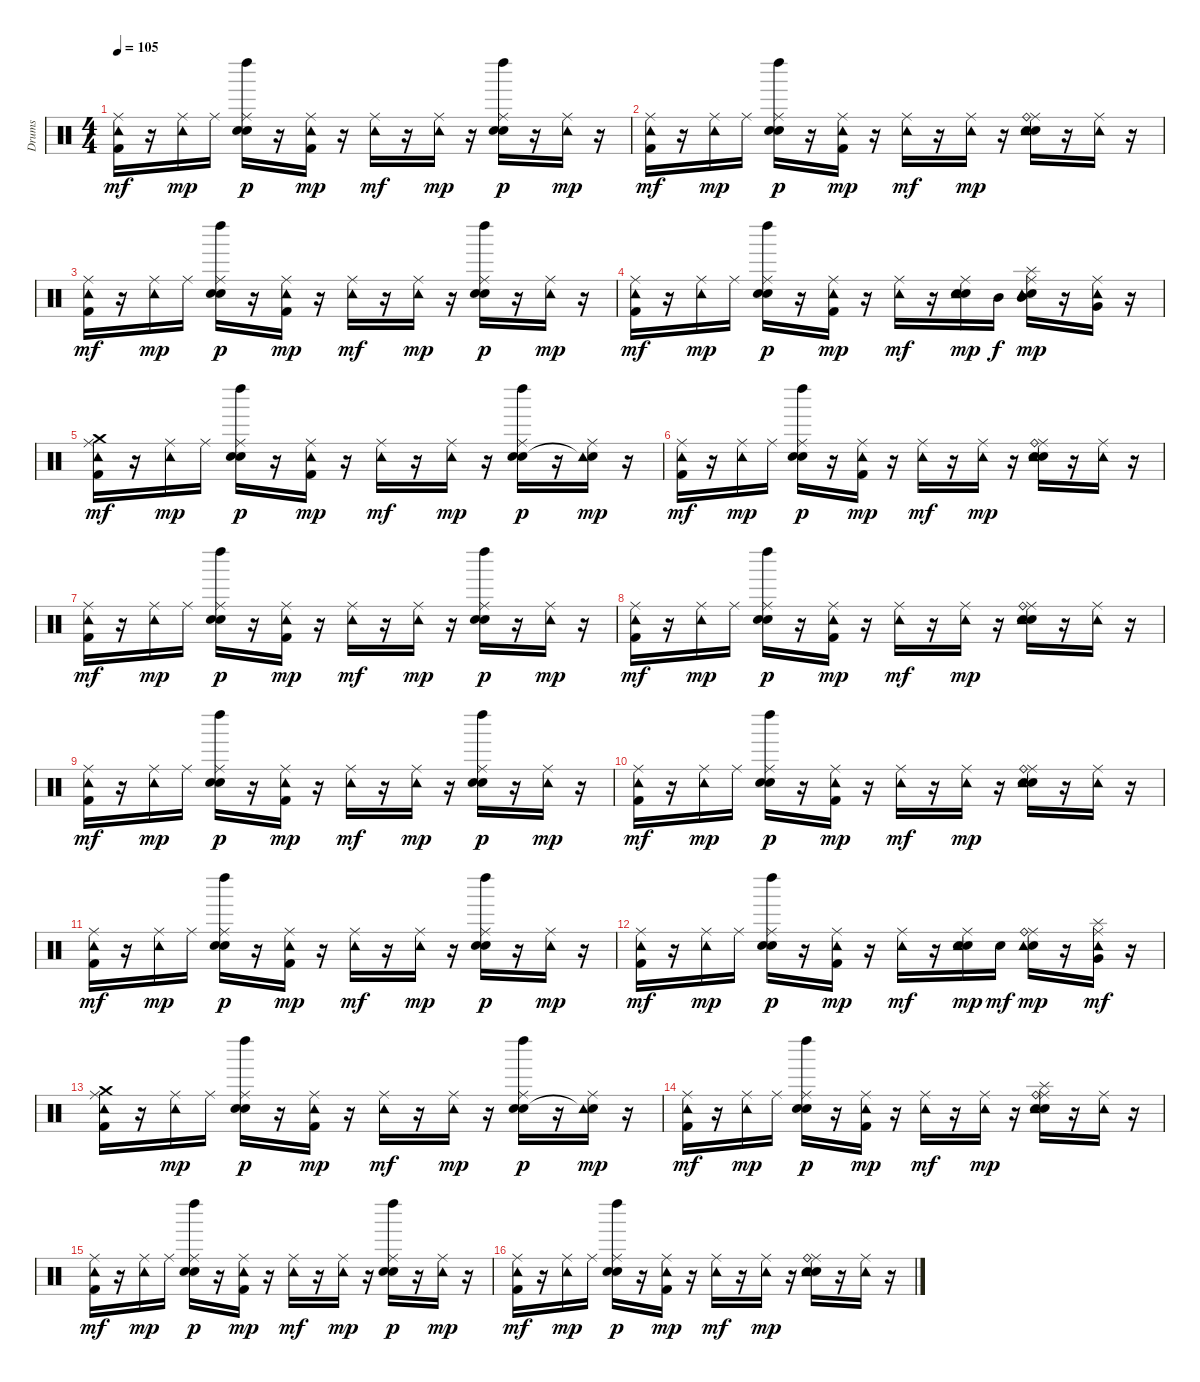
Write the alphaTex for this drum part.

\track ("Drums" "Drums") {instrument percussion}
\staff {score}
\articulation defaults
\ts (4 4)
\tempo 105
\clef neutral
\ks c
("Ride (middle)" "Tambourine (hit)" "Kick (hit) 2").16{dy mf} r.16 ("Ride (middle)" "Tambourine (hit)").16{dy mp} "Ride (middle)".16 ("Ride (middle)" "Electric Snare (hit)" "Snare (hit) 2" "Left Maraca (hit)").16{dy p} r.16 ("Ride (middle)" "Tambourine (hit)" "Kick (hit) 2").16{dy mp} r.16 ("Ride (middle)" "Tambourine (hit)").16{dy mf} r.16 ("Ride (middle)" "Tambourine (hit)").16{dy mp} r.16 ("Ride (middle)" "Electric Snare (hit)" "Snare (hit) 2" "Left Maraca (hit)").16{dy p} r.16 ("Ride (middle)" "Tambourine (hit)").16{dy mp} r.16 |
("Ride (middle)" "Tambourine (hit)" "Kick (hit) 2").16{dy mf} r.16 ("Ride (middle)" "Tambourine (hit)").16{dy mp} "Ride (middle)".16 ("Ride (middle)" "Electric Snare (hit)" "Snare (hit) 2" "Left Maraca (hit)").16{dy p} r.16 ("Ride (middle)" "Tambourine (hit)" "Kick (hit) 2").16{dy mp} r.16 ("Ride (middle)" "Tambourine (hit)").16{dy mf} r.16 ("Ride (middle)" "Tambourine (hit)").16{dy mp} r.16 ("Ride (middle)" "Ride (bell)" "Electric Snare (hit)" "Snare (hit) 2" "Tambourine (hit)").16 r.16 ("Ride (middle)" "Tambourine (hit)").16 r.16 |
("Ride (middle)" "Tambourine (hit)" "Kick (hit) 2").16{dy mf} r.16 ("Ride (middle)" "Tambourine (hit)").16{dy mp} "Ride (middle)".16 ("Ride (middle)" "Electric Snare (hit)" "Snare (hit) 2" "Left Maraca (hit)").16{dy p} r.16 ("Ride (middle)" "Tambourine (hit)" "Kick (hit) 2").16{dy mp} r.16 ("Ride (middle)" "Tambourine (hit)").16{dy mf} r.16 ("Ride (middle)" "Tambourine (hit)").16{dy mp} r.16 ("Ride (middle)" "Electric Snare (hit)" "Snare (hit) 2" "Left Maraca (hit)").16{dy p} r.16 ("Ride (middle)" "Tambourine (hit)").16{dy mp} r.16 |
("Ride (middle)" "Tambourine (hit)" "Kick (hit) 2").16{dy mf} r.16 ("Ride (middle)" "Tambourine (hit)").16{dy mp} "Ride (middle)".16 ("Ride (middle)" "Electric Snare (hit)" "Snare (hit) 2" "Left Maraca (hit)").16{dy p} r.16 ("Ride (middle)" "Tambourine (hit)" "Kick (hit) 2").16{dy mp} r.16 ("Ride (middle)" "Tambourine (hit)").16{dy mf} r.16 ("Ride (middle)" "Electric Snare (hit)" "Snare (hit) 2" "Tambourine (hit)").16{dy mp} "Mid Tom (hit)".16{dy f} ("Ride (middle)" "Splash (hit)" "Mid Tom (hit)" "Snare (hit) 2" "Tambourine (hit)").16{dy mp} r.16 ("Ride (middle)" "Very Low Tom (hit)" "Tambourine (hit)").16 r.16 |
("Ride (middle)" "Crash medium (hit)" "Tambourine (hit)" "Kick (hit) 2").16{dy mf} r.16 ("Ride (middle)" "Tambourine (hit)").16{dy mp} "Ride (middle)".16 ("Ride (middle)" "Electric Snare (hit)" "Snare (hit) 2" "Left Maraca (hit)").16{dy p} r.16 ("Ride (middle)" "Tambourine (hit)" "Kick (hit) 2").16{dy mp} r.16 ("Ride (middle)" "Tambourine (hit)").16{dy mf} r.16 ("Ride (middle)" "Tambourine (hit)").16{dy mp} r.16 ("Ride (middle)" "Electric Snare (hit)" "Snare (hit) 2" "Left Maraca (hit)").16{dy p} r.16 ("Ride (middle)" "Snare (hit)"{t} "Tambourine (hit)").16{dy mp} r.16 |
("Ride (middle)" "Tambourine (hit)" "Kick (hit) 2").16{dy mf} r.16 ("Ride (middle)" "Tambourine (hit)").16{dy mp} "Ride (middle)".16 ("Ride (middle)" "Electric Snare (hit)" "Snare (hit) 2" "Left Maraca (hit)").16{dy p} r.16 ("Ride (middle)" "Tambourine (hit)" "Kick (hit) 2").16{dy mp} r.16 ("Ride (middle)" "Tambourine (hit)").16{dy mf} r.16 ("Ride (middle)" "Tambourine (hit)").16{dy mp} r.16 ("Ride (middle)" "Ride (bell)" "Electric Snare (hit)" "Snare (hit) 2" "Tambourine (hit)").16 r.16 ("Ride (middle)" "Tambourine (hit)").16 r.16 |
("Ride (middle)" "Tambourine (hit)" "Kick (hit) 2").16{dy mf} r.16 ("Ride (middle)" "Tambourine (hit)").16{dy mp} "Ride (middle)".16 ("Ride (middle)" "Electric Snare (hit)" "Snare (hit) 2" "Left Maraca (hit)").16{dy p} r.16 ("Ride (middle)" "Tambourine (hit)" "Kick (hit) 2").16{dy mp} r.16 ("Ride (middle)" "Tambourine (hit)").16{dy mf} r.16 ("Ride (middle)" "Tambourine (hit)").16{dy mp} r.16 ("Ride (middle)" "Electric Snare (hit)" "Snare (hit) 2" "Left Maraca (hit)").16{dy p} r.16 ("Ride (middle)" "Tambourine (hit)").16{dy mp} r.16 |
("Ride (middle)" "Tambourine (hit)" "Kick (hit) 2").16{dy mf} r.16 ("Ride (middle)" "Tambourine (hit)").16{dy mp} "Ride (middle)".16 ("Ride (middle)" "Electric Snare (hit)" "Snare (hit) 2" "Left Maraca (hit)").16{dy p} r.16 ("Ride (middle)" "Tambourine (hit)" "Kick (hit) 2").16{dy mp} r.16 ("Ride (middle)" "Tambourine (hit)").16{dy mf} r.16 ("Ride (middle)" "Tambourine (hit)").16{dy mp} r.16 ("Ride (middle)" "Ride (bell)" "Electric Snare (hit)" "Snare (hit) 2" "Tambourine (hit)").16 r.16 ("Ride (middle)" "Tambourine (hit)").16 r.16 |
("Ride (middle)" "Tambourine (hit)" "Kick (hit) 2").16{dy mf} r.16 ("Ride (middle)" "Tambourine (hit)").16{dy mp} "Ride (middle)".16 ("Ride (middle)" "Electric Snare (hit)" "Snare (hit) 2" "Left Maraca (hit)").16{dy p} r.16 ("Ride (middle)" "Tambourine (hit)" "Kick (hit) 2").16{dy mp} r.16 ("Ride (middle)" "Tambourine (hit)").16{dy mf} r.16 ("Ride (middle)" "Tambourine (hit)").16{dy mp} r.16 ("Ride (middle)" "Electric Snare (hit)" "Snare (hit) 2" "Left Maraca (hit)").16{dy p} r.16 ("Ride (middle)" "Tambourine (hit)").16{dy mp} r.16 |
("Ride (middle)" "Tambourine (hit)" "Kick (hit) 2").16{dy mf} r.16 ("Ride (middle)" "Tambourine (hit)").16{dy mp} "Ride (middle)".16 ("Ride (middle)" "Electric Snare (hit)" "Snare (hit) 2" "Left Maraca (hit)").16{dy p} r.16 ("Ride (middle)" "Tambourine (hit)" "Kick (hit) 2").16{dy mp} r.16 ("Ride (middle)" "Tambourine (hit)").16{dy mf} r.16 ("Ride (middle)" "Tambourine (hit)").16{dy mp} r.16 ("Ride (middle)" "Ride (bell)" "Electric Snare (hit)" "Snare (hit) 2" "Tambourine (hit)").16 r.16 ("Ride (middle)" "Tambourine (hit)").16 r.16 |
("Ride (middle)" "Tambourine (hit)" "Kick (hit) 2").16{dy mf} r.16 ("Ride (middle)" "Tambourine (hit)").16{dy mp} "Ride (middle)".16 ("Ride (middle)" "Electric Snare (hit)" "Snare (hit) 2" "Left Maraca (hit)").16{dy p} r.16 ("Ride (middle)" "Tambourine (hit)" "Kick (hit) 2").16{dy mp} r.16 ("Ride (middle)" "Tambourine (hit)").16{dy mf} r.16 ("Ride (middle)" "Tambourine (hit)").16{dy mp} r.16 ("Ride (middle)" "Electric Snare (hit)" "Snare (hit) 2" "Left Maraca (hit)").16{dy p} r.16 ("Ride (middle)" "Tambourine (hit)").16{dy mp} r.16 |
("Ride (middle)" "Tambourine (hit)" "Kick (hit) 2").16{dy mf} r.16 ("Ride (middle)" "Tambourine (hit)").16{dy mp} "Ride (middle)".16 ("Ride (middle)" "Electric Snare (hit)" "Snare (hit) 2" "Left Maraca (hit)").16{dy p} r.16 ("Ride (middle)" "Tambourine (hit)" "Kick (hit) 2").16{dy mp} r.16 ("Ride (middle)" "Tambourine (hit)").16{dy mf} r.16 ("Ride (middle)" "Electric Snare (hit)" "Snare (hit) 2" "Tambourine (hit)").16{dy mp} "Electric Snare (hit)".16{dy mf} ("Ride (middle)" "Ride (bell)" "Electric Snare (hit)" "Tambourine (hit)").16{dy mp} r.16 ("Ride (middle)" "Splash (hit)" "Very Low Tom (hit)" "Tambourine (hit)").16{dy mf} r.16 |
("Ride (middle)" "Crash medium (hit)" "Tambourine (hit)" "Kick (hit) 2").16 r.16 ("Ride (middle)" "Tambourine (hit)").16{dy mp} "Ride (middle)".16 ("Ride (middle)" "Electric Snare (hit)" "Snare (hit) 2" "Left Maraca (hit)").16{dy p} r.16 ("Ride (middle)" "Tambourine (hit)" "Kick (hit) 2").16{dy mp} r.16 ("Ride (middle)" "Tambourine (hit)").16{dy mf} r.16 ("Ride (middle)" "Tambourine (hit)").16{dy mp} r.16 ("Ride (middle)" "Electric Snare (hit)" "Snare (hit) 2" "Left Maraca (hit)").16{dy p} r.16 ("Ride (middle)" "Snare (hit)"{t} "Tambourine (hit)").16{dy mp} r.16 |
("Ride (middle)" "Tambourine (hit)" "Kick (hit) 2").16{dy mf} r.16 ("Ride (middle)" "Tambourine (hit)").16{dy mp} "Ride (middle)".16 ("Ride (middle)" "Electric Snare (hit)" "Snare (hit) 2" "Left Maraca (hit)").16{dy p} r.16 ("Ride (middle)" "Tambourine (hit)" "Kick (hit) 2").16{dy mp} r.16 ("Ride (middle)" "Tambourine (hit)").16{dy mf} r.16 ("Ride (middle)" "Tambourine (hit)").16{dy mp} r.16 ("Ride (middle)" "Ride (bell)" "Electric Snare (hit)" "Snare (hit) 2" "Tambourine (hit)" "Splash (hit)").16 r.16 ("Ride (middle)" "Tambourine (hit)").16 r.16 |
("Ride (middle)" "Tambourine (hit)" "Kick (hit) 2").16{dy mf} r.16 ("Ride (middle)" "Tambourine (hit)").16{dy mp} "Ride (middle)".16 ("Ride (middle)" "Electric Snare (hit)" "Snare (hit) 2" "Left Maraca (hit)").16{dy p} r.16 ("Ride (middle)" "Tambourine (hit)" "Kick (hit) 2").16{dy mp} r.16 ("Ride (middle)" "Tambourine (hit)").16{dy mf} r.16 ("Ride (middle)" "Tambourine (hit)").16{dy mp} r.16 ("Ride (middle)" "Electric Snare (hit)" "Snare (hit) 2" "Left Maraca (hit)").16{dy p} r.16 ("Ride (middle)" "Tambourine (hit)").16{dy mp} r.16 |
("Ride (middle)" "Tambourine (hit)" "Kick (hit) 2").16{dy mf} r.16 ("Ride (middle)" "Tambourine (hit)").16{dy mp} "Ride (middle)".16 ("Ride (middle)" "Electric Snare (hit)" "Snare (hit) 2" "Left Maraca (hit)").16{dy p} r.16 ("Ride (middle)" "Tambourine (hit)" "Kick (hit) 2").16{dy mp} r.16 ("Ride (middle)" "Tambourine (hit)").16{dy mf} r.16 ("Ride (middle)" "Tambourine (hit)").16{dy mp} r.16 ("Ride (middle)" "Ride (bell)" "Electric Snare (hit)" "Snare (hit) 2" "Tambourine (hit)").16 r.16 ("Ride (middle)" "Tambourine (hit)").16 r.16
